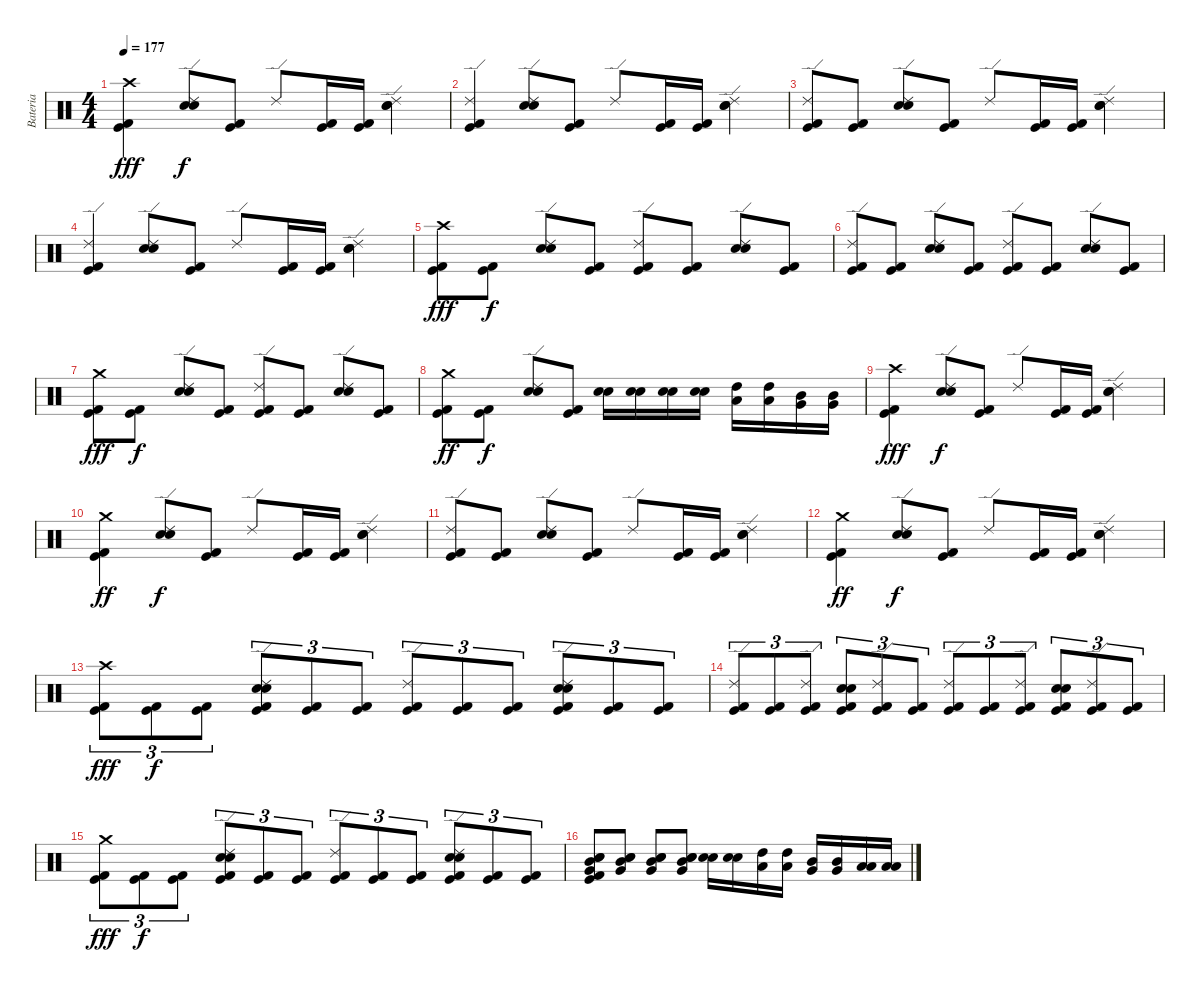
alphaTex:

\track ("Bateria" "Bateria") {instrument percussion}
\staff {score}
\articulation defaults
\ts (4 4)
\tempo 177
\clef neutral
\ks c
("Crash high (hit)" "Kick (hit) 2" "Kick (hit)").4{dy fff} ("Ride (edge) 2" "Electric Snare (hit)" "Snare (hit) 2").8{dy f} ("Kick (hit) 2" "Kick (hit)").8 "Ride (edge) 2".8 ("Kick (hit) 2" "Kick (hit)").16 ("Kick (hit) 2" "Kick (hit)").16 ("Ride (edge) 2" "Electric Snare (hit)" "Snare (hit) 2").4 |
("Ride (edge) 2" "Kick (hit) 2" "Kick (hit)").4 ("Ride (edge) 2" "Electric Snare (hit)" "Snare (hit) 2").8 ("Kick (hit) 2" "Kick (hit)").8 "Ride (edge) 2".8 ("Kick (hit) 2" "Kick (hit)").16 ("Kick (hit) 2" "Kick (hit)").16 ("Ride (edge) 2" "Electric Snare (hit)" "Snare (hit) 2").4 |
("Ride (edge) 2" "Kick (hit) 2" "Kick (hit)").8 ("Kick (hit) 2" "Kick (hit)").8 ("Ride (edge) 2" "Electric Snare (hit)" "Snare (hit) 2").8 ("Kick (hit) 2" "Kick (hit)").8 "Ride (edge) 2".8 ("Kick (hit) 2" "Kick (hit)").16 ("Kick (hit) 2" "Kick (hit)").16 ("Ride (edge) 2" "Electric Snare (hit)" "Snare (hit) 2").4 |
("Ride (edge) 2" "Kick (hit) 2" "Kick (hit)").4 ("Ride (edge) 2" "Electric Snare (hit)" "Snare (hit) 2").8 ("Kick (hit) 2" "Kick (hit)").8 "Ride (edge) 2".8 ("Kick (hit) 2" "Kick (hit)").16 ("Kick (hit) 2" "Kick (hit)").16 ("Ride (edge) 2" "Electric Snare (hit)" "Snare (hit) 2").4 |
("Crash high (hit)" "Kick (hit) 2" "Kick (hit)").8{dy fff} ("Kick (hit) 2" "Kick (hit)").8{dy f} ("Ride (edge) 2" "Electric Snare (hit)" "Snare (hit) 2").8 ("Kick (hit) 2" "Kick (hit)").8 ("Ride (edge) 2" "Kick (hit) 2" "Kick (hit)").8 ("Kick (hit) 2" "Kick (hit)").8 ("Ride (edge) 2" "Electric Snare (hit)" "Snare (hit) 2").8 ("Kick (hit) 2" "Kick (hit)").8 |
("Ride (edge) 2" "Kick (hit) 2" "Kick (hit)").8 ("Kick (hit) 2" "Kick (hit)").8 ("Ride (edge) 2" "Electric Snare (hit)" "Snare (hit) 2").8 ("Kick (hit) 2" "Kick (hit)").8 ("Ride (edge) 2" "Kick (hit) 2" "Kick (hit)").8 ("Kick (hit) 2" "Kick (hit)").8 ("Ride (edge) 2" "Electric Snare (hit)" "Snare (hit) 2").8 ("Kick (hit) 2" "Kick (hit)").8 |
("Crash medium (hit)" "Kick (hit) 2" "Kick (hit)").8{dy fff} ("Kick (hit) 2" "Kick (hit)").8{dy f} ("Ride (edge) 2" "Electric Snare (hit)" "Snare (hit) 2").8 ("Kick (hit) 2" "Kick (hit)").8 ("Ride (edge) 2" "Kick (hit) 2" "Kick (hit)").8 ("Kick (hit) 2" "Kick (hit)").8 ("Ride (edge) 2" "Electric Snare (hit)" "Snare (hit) 2").8 ("Kick (hit) 2" "Kick (hit)").8 |
("Crash medium (hit)" "Kick (hit) 2" "Kick (hit)").8{dy ff} ("Kick (hit) 2" "Kick (hit)").8{dy f} ("Ride (edge) 2" "Electric Snare (hit)" "Snare (hit) 2").8 ("Kick (hit) 2" "Kick (hit)").8 ("Electric Snare (hit)" "Snare (hit) 2").16 ("Electric Snare (hit)" "Snare (hit) 2").16 ("Electric Snare (hit)" "Snare (hit) 2").16 ("Electric Snare (hit)" "Snare (hit) 2").16 ("High Tom (hit)" "Low Tom (hit)").16 ("High Tom (hit)" "Low Tom (hit)").16 ("Mid Tom (hit)" "Very Low Tom (hit)").16 ("Mid Tom (hit)" "Very Low Tom (hit)").16 |
("Crash high (hit)" "Kick (hit) 2" "Kick (hit)").4{dy fff} ("Ride (edge) 2" "Electric Snare (hit)" "Snare (hit) 2").8{dy f} ("Kick (hit) 2" "Kick (hit)").8 "Ride (edge) 2".8 ("Kick (hit) 2" "Kick (hit)").16 ("Kick (hit) 2" "Kick (hit)").16 ("Ride (edge) 2" "Electric Snare (hit)" "Snare (hit) 2").4 |
("Crash medium (hit)" "Kick (hit) 2" "Kick (hit)").4{dy ff} ("Ride (edge) 2" "Electric Snare (hit)" "Snare (hit) 2").8{dy f} ("Kick (hit) 2" "Kick (hit)").8 "Ride (edge) 2".8 ("Kick (hit) 2" "Kick (hit)").16 ("Kick (hit) 2" "Kick (hit)").16 ("Ride (edge) 2" "Electric Snare (hit)" "Snare (hit) 2").4 |
("Ride (edge) 2" "Kick (hit) 2" "Kick (hit)").8 ("Kick (hit) 2" "Kick (hit)").8 ("Ride (edge) 2" "Electric Snare (hit)" "Snare (hit) 2").8 ("Kick (hit) 2" "Kick (hit)").8 "Ride (edge) 2".8 ("Kick (hit) 2" "Kick (hit)").16 ("Kick (hit) 2" "Kick (hit)").16 ("Ride (edge) 2" "Electric Snare (hit)" "Snare (hit) 2").4 |
("Crash medium (hit)" "Kick (hit) 2" "Kick (hit)").4{dy ff} ("Ride (edge) 2" "Electric Snare (hit)" "Snare (hit) 2").8{dy f} ("Kick (hit) 2" "Kick (hit)").8 "Ride (edge) 2".8 ("Kick (hit) 2" "Kick (hit)").16 ("Kick (hit) 2" "Kick (hit)").16 ("Ride (edge) 2" "Electric Snare (hit)" "Snare (hit) 2").4 |
("Crash high (hit)" "Kick (hit) 2" "Kick (hit)").8{tu (3 2) dy fff} ("Kick (hit) 2" "Kick (hit)").8{tu (3 2) dy f} ("Kick (hit) 2" "Kick (hit)").8{tu (3 2)} ("Ride (edge) 2" "Electric Snare (hit)" "Snare (hit) 2" "Kick (hit) 2" "Kick (hit)").8{tu (3 2)} ("Kick (hit) 2" "Kick (hit)").8{tu (3 2)} ("Kick (hit) 2" "Kick (hit)").8{tu (3 2)} ("Ride (edge) 2" "Kick (hit) 2" "Kick (hit)").8{tu (3 2)} ("Kick (hit) 2" "Kick (hit)").8{tu (3 2)} ("Kick (hit) 2" "Kick (hit)").8{tu (3 2)} ("Ride (edge) 2" "Electric Snare (hit)" "Snare (hit) 2" "Kick (hit) 2" "Kick (hit)").8{tu (3 2)} ("Kick (hit) 2" "Kick (hit)").8{tu (3 2)} ("Kick (hit) 2" "Kick (hit)").8{tu (3 2)} |
("Ride (edge) 2" "Kick (hit) 2" "Kick (hit)").8{tu (3 2)} ("Kick (hit) 2" "Kick (hit)").8{tu (3 2)} ("Ride (edge) 2" "Kick (hit) 2" "Kick (hit)").8{tu (3 2)} ("Electric Snare (hit)" "Snare (hit) 2" "Kick (hit) 2" "Kick (hit)").8{tu (3 2)} ("Ride (edge) 2" "Kick (hit) 2" "Kick (hit)").8{tu (3 2)} ("Kick (hit) 2" "Kick (hit)").8{tu (3 2)} ("Ride (edge) 2" "Kick (hit) 2" "Kick (hit)").8{tu (3 2)} ("Kick (hit) 2" "Kick (hit)").8{tu (3 2)} ("Ride (edge) 2" "Kick (hit) 2" "Kick (hit)").8{tu (3 2)} ("Electric Snare (hit)" "Snare (hit) 2" "Kick (hit) 2" "Kick (hit)").8{tu (3 2)} ("Ride (edge) 2" "Kick (hit) 2" "Kick (hit)").8{tu (3 2)} ("Kick (hit) 2" "Kick (hit)").8{tu (3 2)} |
("Crash medium (hit)" "Kick (hit) 2" "Kick (hit)").8{tu (3 2) dy fff} ("Kick (hit) 2" "Kick (hit)").8{tu (3 2) dy f} ("Kick (hit) 2" "Kick (hit)").8{tu (3 2)} ("Ride (edge) 2" "Electric Snare (hit)" "Snare (hit) 2" "Kick (hit) 2" "Kick (hit)").8{tu (3 2)} ("Kick (hit) 2" "Kick (hit)").8{tu (3 2)} ("Kick (hit) 2" "Kick (hit)").8{tu (3 2)} ("Ride (edge) 2" "Kick (hit) 2" "Kick (hit)").8{tu (3 2)} ("Kick (hit) 2" "Kick (hit)").8{tu (3 2)} ("Kick (hit) 2" "Kick (hit)").8{tu (3 2)} ("Ride (edge) 2" "Electric Snare (hit)" "Snare (hit) 2" "Kick (hit) 2" "Kick (hit)").8{tu (3 2)} ("Kick (hit) 2" "Kick (hit)").8{tu (3 2)} ("Kick (hit) 2" "Kick (hit)").8{tu (3 2)} |
("Electric Snare (hit)" "Snare (hit) 2" "Mid Tom (hit)" "Very Low Tom (hit)" "Kick (hit) 2" "Kick (hit)").8 ("Electric Snare (hit)" "Snare (hit) 2" "Mid Tom (hit)" "Very Low Tom (hit)").8 ("Electric Snare (hit)" "Snare (hit) 2" "Mid Tom (hit)" "Very Low Tom (hit)").8 ("Electric Snare (hit)" "Snare (hit) 2" "Mid Tom (hit)" "Very Low Tom (hit)").8 ("Electric Snare (hit)" "Snare (hit) 2").16 ("Electric Snare (hit)" "Snare (hit) 2").16 ("High Tom (hit)" "Low Tom (hit)").16 ("High Tom (hit)" "Low Tom (hit)").16 ("Mid Tom (hit)" "Very Low Tom (hit)").16 ("Mid Tom (hit)" "Very Low Tom (hit)").16 ("Low Tom (hit)" "Low Floor Tom (hit)").16 ("Low Tom (hit)" "Low Floor Tom (hit)").16
